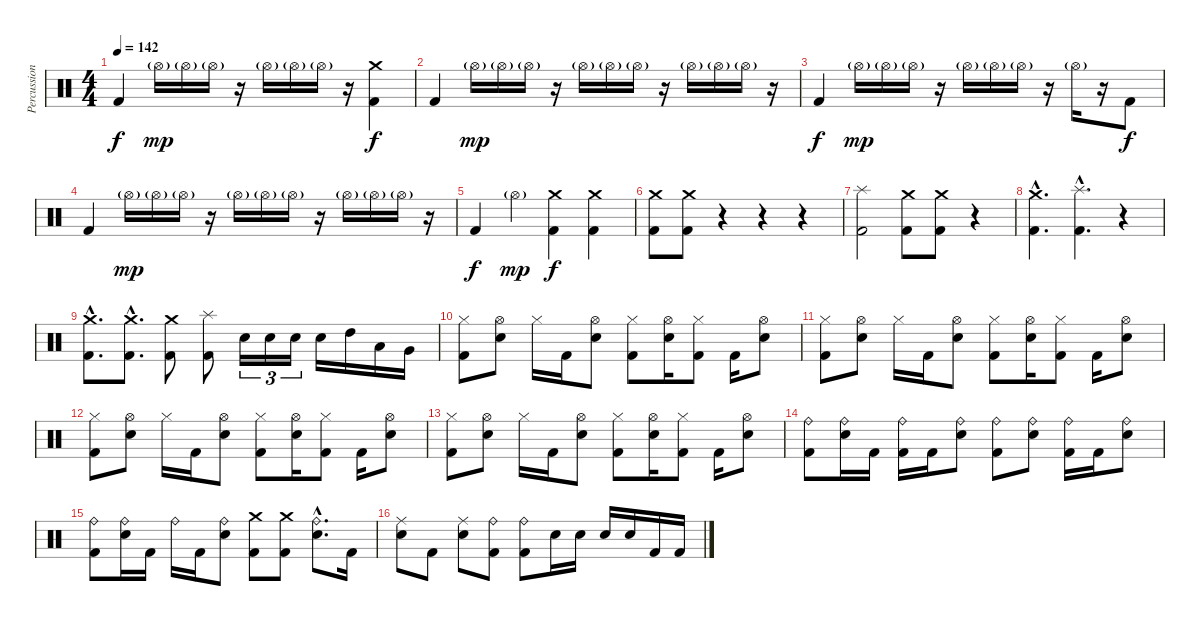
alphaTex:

\track ("Percussion" "Percussion") {instrument percussion}
\staff {score}
\articulation defaults
\ts (4 4)
\tempo 142
\clef neutral
\ks c "Kick (hit) 2".4{dy f} "Hi-Hat (open)"{g}.16{dy mp} "Hi-Hat (open)"{g}.16 "Hi-Hat (open)"{g}.16
r.16 "Hi-Hat (open)"{g}.16 "Hi-Hat (open)"{g}.16 "Hi-Hat (open)"{g}.16 r.16 ("Crash medium (hit)" "Kick (hit) 2").4{dy f} |
"Kick (hit) 2".4 "Hi-Hat (open)"{g}.16{dy mp} "Hi-Hat (open)"{g}.16 "Hi-Hat (open)"{g}.16 r.16 "Hi-Hat (open)"{g}.16 "Hi-Hat (open)"{g}.16 "Hi-Hat (open)"{g}.16 r.16 "Hi-Hat (open)"{g}.16 "Hi-Hat (open)"{g}.16 "Hi-Hat (open)"{g}.16 r.16 |
"Kick (hit) 2".4{dy f} "Hi-Hat (open)"{g}.16{dy mp} "Hi-Hat (open)"{g}.16 "Hi-Hat (open)"{g}.16 r.16 "Hi-Hat (open)"{g}.16 "Hi-Hat (open)"{g}.16 "Hi-Hat (open)"{g}.16 r.16 "Hi-Hat (open)"{g}.16 r.16 "Kick (hit) 2".8{dy f} |
"Kick (hit) 2".4 "Hi-Hat (open)"{g}.16{dy mp} "Hi-Hat (open)"{g}.16 "Hi-Hat (open)"{g}.16 r.16 "Hi-Hat (open)"{g}.16 "Hi-Hat (open)"{g}.16 "Hi-Hat (open)"{g}.16 r.16 "Hi-Hat (open)"{g}.16 "Hi-Hat (open)"{g}.16 "Hi-Hat (open)"{g}.16 r.16 |
"Kick (hit) 2".4{dy f} "Hi-Hat (open)"{g}.4{dy mp} ("Crash medium (hit)" "Kick (hit) 2").4{dy f} ("Crash medium (hit)" "Kick (hit) 2").4 |
("Crash medium (hit)" "Kick (hit) 2").8 ("Crash medium (hit)" "Kick (hit) 2").8 r.4 r.4 r.4 |
("Splash (hit)" "Kick (hit) 2").2 ("Crash medium (hit)" "Kick (hit) 2").8 ("Crash medium (hit)" "Kick (hit) 2").8 r.4 |
("Crash medium (hit)"{hac} "Kick (hit) 2"{hac}).4{d} ("Splash (hit)"{hac} "Kick (hit) 2"{hac}).4{d} r.4 |
("Crash medium (hit)"{hac} "Kick (hit) 2"{hac}).8{d} ("Crash medium (hit)"{hac} "Kick (hit) 2"{hac}).8{d} ("Crash medium (hit)" "Kick (hit) 2").8 ("Splash (hit)" "Kick (hit) 2").8 "Electric Snare (hit)".16{tu (3 2)} "Electric Snare (hit)".16{tu (3 2)} "Electric Snare (hit)".16{tu (3 2)} "Electric Snare (hit)".16 "High Tom (hit)".16 "Low Tom (hit)".16 "Very Low Tom (hit)".16 |
("Hi-Hat (closed)" "Kick (hit) 2").8 ("Hi-Hat (open)" "Electric Snare (hit)").8 "Hi-Hat (closed)".16 "Kick (hit) 2".16 ("Hi-Hat (open)" "Electric Snare (hit)").8 ("Hi-Hat (closed)" "Kick (hit) 2").8 ("Hi-Hat (open)" "Electric Snare (hit)").16 ("Hi-Hat (closed)" "Kick (hit) 2").8 "Kick (hit) 2".16 ("Hi-Hat (open)" "Electric Snare (hit)").8 |
("Hi-Hat (closed)" "Kick (hit) 2").8 ("Hi-Hat (open)" "Electric Snare (hit)").8 "Hi-Hat (closed)".16 "Kick (hit) 2".16 ("Hi-Hat (open)" "Electric Snare (hit)").8 ("Hi-Hat (closed)" "Kick (hit) 2").8 ("Hi-Hat (open)" "Electric Snare (hit)").16 ("Hi-Hat (closed)" "Kick (hit) 2").8 "Kick (hit) 2".16 ("Hi-Hat (open)" "Electric Snare (hit)").8 |
("Hi-Hat (closed)" "Kick (hit) 2").8 ("Hi-Hat (open)" "Electric Snare (hit)").8 "Hi-Hat (closed)".16 "Kick (hit) 2".16 ("Hi-Hat (open)" "Electric Snare (hit)").8 ("Hi-Hat (closed)" "Kick (hit) 2").8 ("Hi-Hat (open)" "Electric Snare (hit)").16 ("Hi-Hat (closed)" "Kick (hit) 2").8 "Kick (hit) 2".16 ("Hi-Hat (open)" "Electric Snare (hit)").8 |
("Hi-Hat (closed)" "Kick (hit) 2").8 ("Hi-Hat (open)" "Electric Snare (hit)").8 "Hi-Hat (closed)".16 "Kick (hit) 2".16 ("Hi-Hat (open)" "Electric Snare (hit)").8 ("Hi-Hat (closed)" "Kick (hit) 2").8 ("Hi-Hat (open)" "Electric Snare (hit)").16 ("Hi-Hat (closed)" "Kick (hit) 2").8 "Kick (hit) 2".16 ("Hi-Hat (open)" "Electric Snare (hit)").8 |
("Ride (bell)" "Kick (hit) 2").8 ("Ride (bell)" "Electric Snare (hit)").16 "Kick (hit) 2".16 ("Ride (bell)" "Kick (hit) 2").16 "Kick (hit) 2".16 ("Ride (bell)" "Electric Snare (hit)").8 ("Ride (bell)" "Kick (hit) 2").8 ("Ride (bell)" "Electric Snare (hit)").8 ("Ride (bell)" "Kick (hit) 2").16 "Kick (hit) 2".16 ("Ride (bell)" "Electric Snare (hit)").8 |
("Ride (bell)" "Kick (hit) 2").8 ("Ride (bell)" "Electric Snare (hit)").16 "Kick (hit) 2".16 "Ride (bell)".16 "Kick (hit) 2".16 ("Ride (bell)" "Electric Snare (hit)").8 ("Crash medium (hit)" "Kick (hit) 2").8 ("Crash medium (hit)" "Kick (hit) 2").8 ("Ride (bell)"{hac} "Electric Snare (hit)"{hac}).8{d} "Kick (hit) 2".16 |
("Ride (middle)" "Electric Snare (hit)").8 "Kick (hit) 2".8 ("Ride (middle)" "Electric Snare (hit)").8 ("Ride (bell)" "Kick (hit) 2").8 ("Ride (bell)" "Kick (hit) 2").8 "Electric Snare (hit)".16 "Electric Snare (hit)".16 "Electric Snare (hit)".16 "Electric Snare (hit)".16 "Kick (hit) 2".16 "Kick (hit) 2".16
